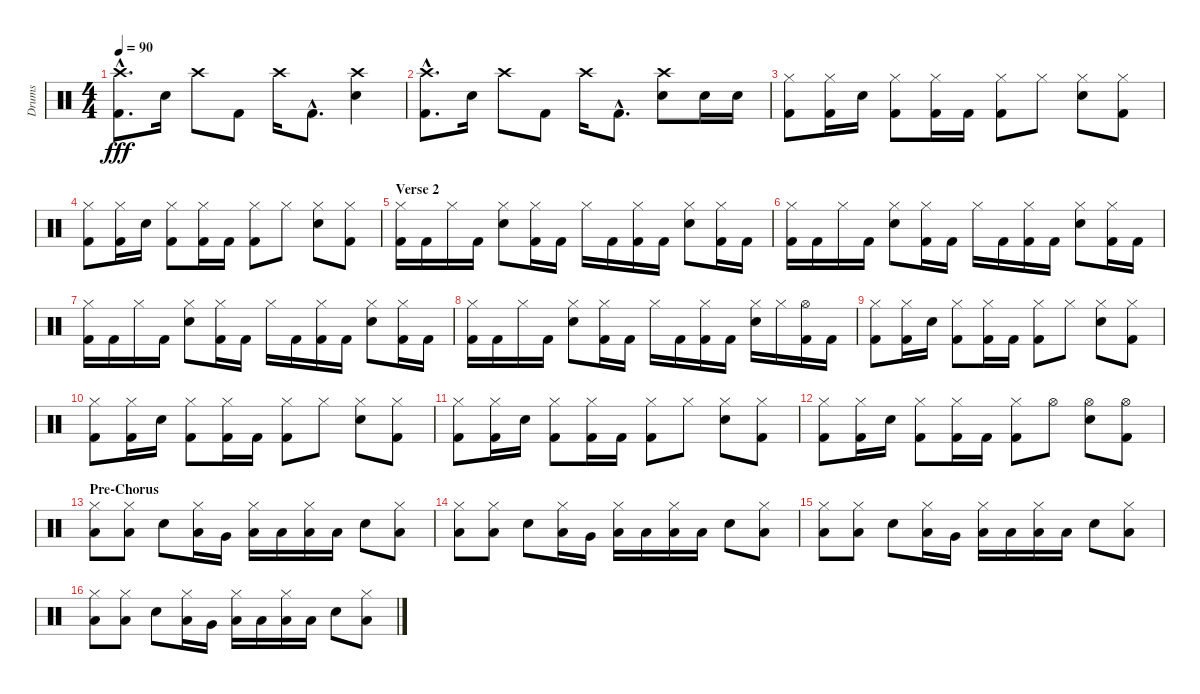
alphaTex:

\track ("Drums" "Drums") {instrument percussion}
\staff {score}
\articulation defaults
\ts (4 4)
\tempo 90
\clef neutral
\ks c
("Crash high (hit)"{hac} "Kick (hit) 2"{hac}).8{d dy fff} "Electric Snare (hit)".16 "Crash high (hit)".8 "Kick (hit) 2".8 "Crash high (hit)".16 "Kick (hit) 2"{hac}.8{d} ("Crash high (hit)" "Electric Snare (hit)").4 |
("Crash high (hit)"{hac} "Kick (hit) 2"{hac}).8{d} "Electric Snare (hit)".16 "Crash high (hit)".8 "Kick (hit) 2".8 "Crash high (hit)".16 "Kick (hit) 2"{hac}.8{d} ("Crash high (hit)" "Electric Snare (hit)").8 "Electric Snare (hit)".16 "Electric Snare (hit)".16 |
("Hi-Hat (closed)" "Kick (hit) 2").8 ("Hi-Hat (closed)" "Kick (hit) 2").16 "Electric Snare (hit)".16 ("Hi-Hat (closed)" "Kick (hit) 2").8 ("Hi-Hat (closed)" "Kick (hit) 2").16 "Kick (hit) 2".16 ("Hi-Hat (closed)" "Kick (hit) 2").8 "Hi-Hat (closed)".8 ("Hi-Hat (closed)" "Electric Snare (hit)").8 ("Hi-Hat (closed)" "Kick (hit) 2").8 |
("Hi-Hat (closed)" "Kick (hit) 2").8 ("Hi-Hat (closed)" "Kick (hit) 2").16 "Electric Snare (hit)".16 ("Hi-Hat (closed)" "Kick (hit) 2").8 ("Hi-Hat (closed)" "Kick (hit) 2").16 "Kick (hit) 2".16 ("Hi-Hat (closed)" "Kick (hit) 2").8 "Hi-Hat (closed)".8 ("Hi-Hat (closed)" "Electric Snare (hit)").8 ("Hi-Hat (closed)" "Kick (hit) 2").8 |
\section ("" "Verse 2")
("Hi-Hat (closed)" "Kick (hit) 2").16 "Kick (hit) 2".16 "Hi-Hat (closed)".16 "Kick (hit) 2".16 ("Hi-Hat (closed)" "Electric Snare (hit)").8 ("Hi-Hat (closed)" "Kick (hit) 2").16 "Kick (hit) 2".16 "Hi-Hat (closed)".16 "Kick (hit) 2".16 ("Hi-Hat (closed)" "Kick (hit) 2").16 "Kick (hit) 2".16 ("Hi-Hat (closed)" "Electric Snare (hit)").8 ("Hi-Hat (closed)" "Kick (hit) 2").16 "Kick (hit) 2".16 |
("Hi-Hat (closed)" "Kick (hit) 2").16 "Kick (hit) 2".16 "Hi-Hat (closed)".16 "Kick (hit) 2".16 ("Hi-Hat (closed)" "Electric Snare (hit)").8 ("Hi-Hat (closed)" "Kick (hit) 2").16 "Kick (hit) 2".16 "Hi-Hat (closed)".16 "Kick (hit) 2".16 ("Hi-Hat (closed)" "Kick (hit) 2").16 "Kick (hit) 2".16 ("Hi-Hat (closed)" "Electric Snare (hit)").8 ("Hi-Hat (closed)" "Kick (hit) 2").16 "Kick (hit) 2".16 |
("Hi-Hat (closed)" "Kick (hit) 2").16 "Kick (hit) 2".16 "Hi-Hat (closed)".16 "Kick (hit) 2".16 ("Hi-Hat (closed)" "Electric Snare (hit)").8 ("Hi-Hat (closed)" "Kick (hit) 2").16 "Kick (hit) 2".16 "Hi-Hat (closed)".16 "Kick (hit) 2".16 ("Hi-Hat (closed)" "Kick (hit) 2").16 "Kick (hit) 2".16 ("Hi-Hat (closed)" "Electric Snare (hit)").8 ("Hi-Hat (closed)" "Kick (hit) 2").16 "Kick (hit) 2".16 |
("Hi-Hat (closed)" "Kick (hit) 2").16 "Kick (hit) 2".16 "Hi-Hat (closed)".16 "Kick (hit) 2".16 ("Hi-Hat (closed)" "Electric Snare (hit)").8 ("Hi-Hat (closed)" "Kick (hit) 2").16 "Kick (hit) 2".16 "Hi-Hat (closed)".16 "Kick (hit) 2".16 ("Hi-Hat (closed)" "Kick (hit) 2").16 "Kick (hit) 2".16 ("Hi-Hat (closed)" "Electric Snare (hit)").16 "Hi-Hat (closed)".16 ("Hi-Hat (open)" "Kick (hit) 2").16 "Kick (hit) 2".16 |
("Hi-Hat (closed)" "Kick (hit) 2").8 ("Hi-Hat (closed)" "Kick (hit) 2").16 "Electric Snare (hit)".16 ("Hi-Hat (closed)" "Kick (hit) 2").8 ("Hi-Hat (closed)" "Kick (hit) 2").16 "Kick (hit) 2".16 ("Hi-Hat (closed)" "Kick (hit) 2").8 "Hi-Hat (closed)".8 ("Hi-Hat (closed)" "Electric Snare (hit)").8 ("Hi-Hat (closed)" "Kick (hit) 2").8 |
("Hi-Hat (closed)" "Kick (hit) 2").8 ("Hi-Hat (closed)" "Kick (hit) 2").16 "Electric Snare (hit)".16 ("Hi-Hat (closed)" "Kick (hit) 2").8 ("Hi-Hat (closed)" "Kick (hit) 2").16 "Kick (hit) 2".16 ("Hi-Hat (closed)" "Kick (hit) 2").8 "Hi-Hat (closed)".8 ("Hi-Hat (closed)" "Electric Snare (hit)").8 ("Hi-Hat (closed)" "Kick (hit) 2").8 |
("Hi-Hat (closed)" "Kick (hit) 2").8 ("Hi-Hat (closed)" "Kick (hit) 2").16 "Electric Snare (hit)".16 ("Hi-Hat (closed)" "Kick (hit) 2").8 ("Hi-Hat (closed)" "Kick (hit) 2").16 "Kick (hit) 2".16 ("Hi-Hat (closed)" "Kick (hit) 2").8 "Hi-Hat (closed)".8 ("Hi-Hat (closed)" "Electric Snare (hit)").8 ("Hi-Hat (closed)" "Kick (hit) 2").8 |
("Hi-Hat (closed)" "Kick (hit) 2").8 ("Hi-Hat (closed)" "Kick (hit) 2").16 "Electric Snare (hit)".16 ("Hi-Hat (closed)" "Kick (hit) 2").8 ("Hi-Hat (closed)" "Kick (hit) 2").16 "Kick (hit) 2".16 ("Hi-Hat (closed)" "Kick (hit) 2").8 "Hi-Hat (open)".8 ("Hi-Hat (open)" "Electric Snare (hit)").8 ("Hi-Hat (open)" "Kick (hit) 2").8 |
\section ("" "Pre-Chorus")
("Low Tom (hit)" "Hi-Hat (closed)").8 ("Low Tom (hit)" "Hi-Hat (closed)").8 "Electric Snare (hit)".8 ("Low Tom (hit)" "Hi-Hat (closed)").16 "Very Low Tom (hit)".16 ("Low Floor Tom (hit)" "Hi-Hat (closed)").16 "Low Floor Tom (hit)".16 ("Low Floor Tom (hit)" "Hi-Hat (closed)").16 "Low Floor Tom (hit)".16 "Electric Snare (hit)".8 ("Low Tom (hit)" "Hi-Hat (closed)").8 |
("Low Tom (hit)" "Hi-Hat (closed)").8 ("Low Tom (hit)" "Hi-Hat (closed)").8 "Electric Snare (hit)".8 ("Low Tom (hit)" "Hi-Hat (closed)").16 "Very Low Tom (hit)".16 ("Low Floor Tom (hit)" "Hi-Hat (closed)").16 "Low Floor Tom (hit)".16 ("Low Floor Tom (hit)" "Hi-Hat (closed)").16 "Low Floor Tom (hit)".16 "Electric Snare (hit)".8 ("Low Tom (hit)" "Hi-Hat (closed)").8 |
("Low Tom (hit)" "Hi-Hat (closed)").8 ("Low Tom (hit)" "Hi-Hat (closed)").8 "Electric Snare (hit)".8 ("Low Tom (hit)" "Hi-Hat (closed)").16 "Very Low Tom (hit)".16 ("Low Floor Tom (hit)" "Hi-Hat (closed)").16 "Low Floor Tom (hit)".16 ("Low Floor Tom (hit)" "Hi-Hat (closed)").16 "Low Floor Tom (hit)".16 "Electric Snare (hit)".8 ("Low Tom (hit)" "Hi-Hat (closed)").8 |
("Low Tom (hit)" "Hi-Hat (closed)").8 ("Low Tom (hit)" "Hi-Hat (closed)").8 "Electric Snare (hit)".8 ("Low Tom (hit)" "Hi-Hat (closed)").16 "Very Low Tom (hit)".16 ("Low Floor Tom (hit)" "Hi-Hat (closed)").16 "Low Floor Tom (hit)".16 ("Low Floor Tom (hit)" "Hi-Hat (closed)").16 "Low Floor Tom (hit)".16 "Electric Snare (hit)".8 ("Low Tom (hit)" "Hi-Hat (closed)").8
